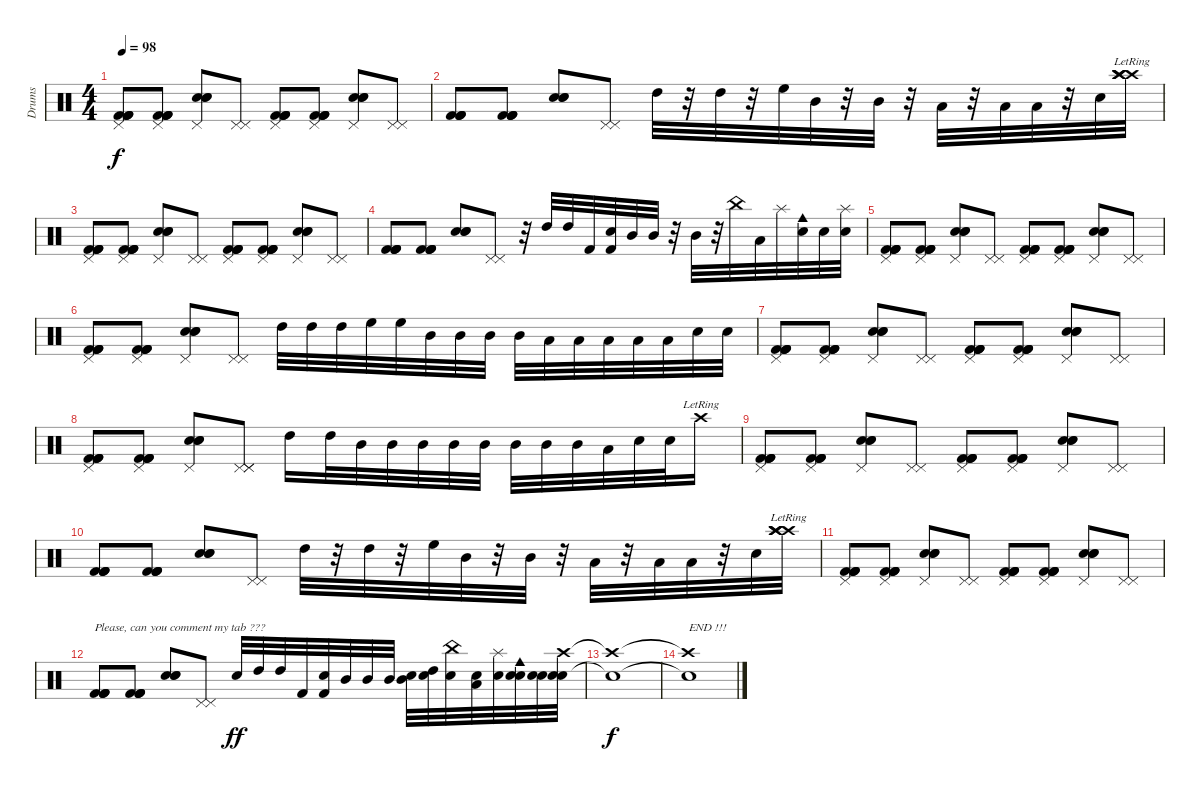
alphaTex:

\track ("Drums" "Drums") {instrument percussion}
\staff {score}
\articulation defaults
\ts (4 4)
\tempo 98
\clef neutral
\ks c
("Pedal Hi-Hat (hit)" "Kick (hit) 2" "Kick (hit) 2" "Kick (hit) 2" "Kick (hit) 2").8{dy f} ("Pedal Hi-Hat (hit)" "Kick (hit) 2" "Kick (hit) 2" "Kick (hit) 2" "Kick (hit) 2").8 ("Pedal Hi-Hat (hit)" "Electric Snare (hit)" "Electric Snare (hit)" "Electric Snare (hit)").8 ("Pedal Hi-Hat (hit)" "Pedal Hi-Hat (hit)").8 ("Pedal Hi-Hat (hit)" "Kick (hit) 2" "Kick (hit) 2" "Kick (hit) 2" "Kick (hit) 2").8 ("Pedal Hi-Hat (hit)" "Kick (hit) 2" "Kick (hit) 2" "Kick (hit) 2" "Kick (hit) 2").8 ("Pedal Hi-Hat (hit)" "Electric Snare (hit)" "Electric Snare (hit)" "Electric Snare (hit)").8 ("Pedal Hi-Hat (hit)" "Pedal Hi-Hat (hit)").8 |
("Kick (hit) 2" "Kick (hit) 2" "Kick (hit) 2" "Kick (hit) 2").8 ("Kick (hit) 2" "Kick (hit) 2" "Kick (hit) 2" "Kick (hit) 2").8 ("Electric Snare (hit)" "Electric Snare (hit)" "Electric Snare (hit)").8 ("Pedal Hi-Hat (hit)" "Pedal Hi-Hat (hit)").8 "High Tom (hit)".32 r.32 "High Tom (hit)".32 r.32 "High Floor Tom (hit)".32 "Mid Tom (hit)".32 r.32 "Mid Tom (hit)".32 r.32 "Low Tom (hit)".32 r.32 "Low Tom (hit)".32 "Low Floor Tom (hit)".32 r.32 "Electric Snare (hit)".32 ("Crash high (hit)"{lr} "Crash high (hit)"{lr} "Crash high (hit)"{lr} "Crash high (hit)"{lr}).32 |
("Pedal Hi-Hat (hit)" "Kick (hit) 2" "Kick (hit) 2" "Kick (hit) 2" "Kick (hit) 2").8 ("Pedal Hi-Hat (hit)" "Kick (hit) 2" "Kick (hit) 2" "Kick (hit) 2" "Kick (hit) 2").8 ("Pedal Hi-Hat (hit)" "Electric Snare (hit)" "Electric Snare (hit)" "Electric Snare (hit)").8 ("Pedal Hi-Hat (hit)" "Pedal Hi-Hat (hit)").8 ("Pedal Hi-Hat (hit)" "Kick (hit) 2" "Kick (hit) 2" "Kick (hit) 2" "Kick (hit) 2").8 ("Pedal Hi-Hat (hit)" "Kick (hit) 2" "Kick (hit) 2" "Kick (hit) 2" "Kick (hit) 2").8 ("Pedal Hi-Hat (hit)" "Electric Snare (hit)" "Electric Snare (hit)" "Electric Snare (hit)").8 ("Pedal Hi-Hat (hit)" "Pedal Hi-Hat (hit)").8 |
("Kick (hit) 2" "Kick (hit) 2" "Kick (hit) 2" "Kick (hit) 2").8 ("Kick (hit) 2" "Kick (hit) 2" "Kick (hit) 2" "Kick (hit) 2").8 ("Electric Snare (hit)" "Electric Snare (hit)" "Electric Snare (hit)").8 ("Pedal Hi-Hat (hit)" "Pedal Hi-Hat (hit)").8 r.32 "High Tom (hit)".32 "High Tom (hit)".32 "Kick (hit) 2".32 ("Electric Snare (hit)" "Kick (hit) 2").32 "Mid Tom (hit)".32 "Mid Tom (hit)".32 r.32 "Mid Tom (hit)".32 r.32 "China (hit)".32 "Low Tom (hit)".32 "Splash (hit)".32 ("Electric Snare (hit)" "Cowbell medium (hit)").32 "Electric Snare (hit)".32 ("Splash (hit)" "Electric Snare (hit)").32 |
("Pedal Hi-Hat (hit)" "Kick (hit) 2" "Kick (hit) 2" "Kick (hit) 2" "Kick (hit) 2").8 ("Pedal Hi-Hat (hit)" "Kick (hit) 2" "Kick (hit) 2" "Kick (hit) 2" "Kick (hit) 2").8 ("Pedal Hi-Hat (hit)" "Electric Snare (hit)" "Electric Snare (hit)" "Electric Snare (hit)").8 ("Pedal Hi-Hat (hit)" "Pedal Hi-Hat (hit)").8 ("Pedal Hi-Hat (hit)" "Kick (hit) 2" "Kick (hit) 2" "Kick (hit) 2" "Kick (hit) 2").8 ("Pedal Hi-Hat (hit)" "Kick (hit) 2" "Kick (hit) 2" "Kick (hit) 2" "Kick (hit) 2").8 ("Pedal Hi-Hat (hit)" "Electric Snare (hit)" "Electric Snare (hit)" "Electric Snare (hit)").8 ("Pedal Hi-Hat (hit)" "Pedal Hi-Hat (hit)").8 |
("Pedal Hi-Hat (hit)" "Kick (hit) 2" "Kick (hit) 2" "Kick (hit) 2" "Kick (hit) 2").8 ("Pedal Hi-Hat (hit)" "Kick (hit) 2" "Kick (hit) 2" "Kick (hit) 2" "Kick (hit) 2").8 ("Pedal Hi-Hat (hit)" "Electric Snare (hit)" "Electric Snare (hit)" "Electric Snare (hit)").8 ("Pedal Hi-Hat (hit)" "Pedal Hi-Hat (hit)").8 "High Tom (hit)".32 "High Tom (hit)".32 "High Tom (hit)".32 "High Floor Tom (hit)".32 "High Floor Tom (hit)".32 "Mid Tom (hit)".32 "Mid Tom (hit)".32 "Mid Tom (hit)".32 "Mid Tom (hit)".32 "Low Tom (hit)".32 "Low Tom (hit)".32 "Low Tom (hit)".32 "Low Floor Tom (hit)".32 "Low Floor Tom (hit)".32 "Electric Snare (hit)".32 "Electric Snare (hit)".32 |
("Pedal Hi-Hat (hit)" "Kick (hit) 2" "Kick (hit) 2" "Kick (hit) 2" "Kick (hit) 2").8 ("Pedal Hi-Hat (hit)" "Kick (hit) 2" "Kick (hit) 2" "Kick (hit) 2" "Kick (hit) 2").8 ("Pedal Hi-Hat (hit)" "Electric Snare (hit)" "Electric Snare (hit)" "Electric Snare (hit)").8 ("Pedal Hi-Hat (hit)" "Pedal Hi-Hat (hit)").8 ("Pedal Hi-Hat (hit)" "Kick (hit) 2" "Kick (hit) 2" "Kick (hit) 2" "Kick (hit) 2").8 ("Pedal Hi-Hat (hit)" "Kick (hit) 2" "Kick (hit) 2" "Kick (hit) 2" "Kick (hit) 2").8 ("Pedal Hi-Hat (hit)" "Electric Snare (hit)" "Electric Snare (hit)" "Electric Snare (hit)").8 ("Pedal Hi-Hat (hit)" "Pedal Hi-Hat (hit)").8 |
("Pedal Hi-Hat (hit)" "Kick (hit) 2" "Kick (hit) 2" "Kick (hit) 2" "Kick (hit) 2").8 ("Pedal Hi-Hat (hit)" "Kick (hit) 2" "Kick (hit) 2" "Kick (hit) 2" "Kick (hit) 2").8 ("Pedal Hi-Hat (hit)" "Electric Snare (hit)" "Electric Snare (hit)" "Electric Snare (hit)").8 ("Pedal Hi-Hat (hit)" "Pedal Hi-Hat (hit)" "Pedal Hi-Hat (hit)").8 "High Tom (hit)".16 "High Tom (hit)".32 "Mid Tom (hit)".32 "Mid Tom (hit)".32 "Mid Tom (hit)".32 "Mid Tom (hit)".32 "Mid Tom (hit)".32 "Mid Tom (hit)".32 "Mid Tom (hit)".32 "Mid Tom (hit)".32 "Low Tom (hit)".32 "Snare (hit) 2".32 "Electric Snare (hit)".32 "Crash high (hit)"{lr}.16 |
("Pedal Hi-Hat (hit)" "Kick (hit) 2" "Kick (hit) 2" "Kick (hit) 2" "Kick (hit) 2").8 ("Pedal Hi-Hat (hit)" "Kick (hit) 2" "Kick (hit) 2" "Kick (hit) 2" "Kick (hit) 2").8 ("Pedal Hi-Hat (hit)" "Electric Snare (hit)" "Electric Snare (hit)" "Electric Snare (hit)").8 ("Pedal Hi-Hat (hit)" "Pedal Hi-Hat (hit)").8 ("Pedal Hi-Hat (hit)" "Kick (hit) 2" "Kick (hit) 2" "Kick (hit) 2" "Kick (hit) 2").8 ("Pedal Hi-Hat (hit)" "Kick (hit) 2" "Kick (hit) 2" "Kick (hit) 2" "Kick (hit) 2").8 ("Pedal Hi-Hat (hit)" "Electric Snare (hit)" "Electric Snare (hit)" "Electric Snare (hit)").8 ("Pedal Hi-Hat (hit)" "Pedal Hi-Hat (hit)").8 |
("Kick (hit) 2" "Kick (hit) 2" "Kick (hit) 2" "Kick (hit) 2").8 ("Kick (hit) 2" "Kick (hit) 2" "Kick (hit) 2" "Kick (hit) 2").8 ("Electric Snare (hit)" "Electric Snare (hit)" "Electric Snare (hit)").8 ("Pedal Hi-Hat (hit)" "Pedal Hi-Hat (hit)").8 "High Tom (hit)".32 r.32 "High Tom (hit)".32 r.32 "High Floor Tom (hit)".32 "Mid Tom (hit)".32 r.32 "Mid Tom (hit)".32 r.32 "Low Tom (hit)".32 r.32 "Low Tom (hit)".32 "Low Floor Tom (hit)".32 r.32 "Electric Snare (hit)".32 ("Crash high (hit)"{lr} "Crash high (hit)"{lr} "Crash high (hit)"{lr} "Crash high (hit)"{lr}).32 |
("Pedal Hi-Hat (hit)" "Kick (hit) 2" "Kick (hit) 2" "Kick (hit) 2" "Kick (hit) 2").8 ("Pedal Hi-Hat (hit)" "Kick (hit) 2" "Kick (hit) 2" "Kick (hit) 2" "Kick (hit) 2").8 ("Pedal Hi-Hat (hit)" "Electric Snare (hit)" "Electric Snare (hit)" "Electric Snare (hit)").8 ("Pedal Hi-Hat (hit)" "Pedal Hi-Hat (hit)").8 ("Pedal Hi-Hat (hit)" "Kick (hit) 2" "Kick (hit) 2" "Kick (hit) 2" "Kick (hit) 2").8 ("Pedal Hi-Hat (hit)" "Kick (hit) 2" "Kick (hit) 2" "Kick (hit) 2" "Kick (hit) 2").8 ("Pedal Hi-Hat (hit)" "Electric Snare (hit)" "Electric Snare (hit)" "Electric Snare (hit)").8 ("Pedal Hi-Hat (hit)" "Pedal Hi-Hat (hit)").8 |
("Kick (hit) 2" "Kick (hit) 2" "Kick (hit) 2" "Kick (hit) 2").8{txt "Please, can you comment my tab ???"} ("Kick (hit) 2" "Kick (hit) 2" "Kick (hit) 2" "Kick (hit) 2").8 ("Electric Snare (hit)" "Electric Snare (hit)" "Electric Snare (hit)").8 ("Pedal Hi-Hat (hit)" "Pedal Hi-Hat (hit)").8 "Snare (hit) 2".32{dy ff} "High Tom (hit)".32 "High Tom (hit)".32 "Kick (hit) 2".32 ("Electric Snare (hit)" "Kick (hit) 2").32 "Mid Tom (hit)".32 "Mid Tom (hit)".32 "Mid Tom (hit)".32 ("Mid Tom (hit)" "Snare (hit) 2").32 ("High Tom (hit)" "Snare (hit) 2").32 ("China (hit)" "Snare (hit) 2").32 ("Low Tom (hit)" "Snare (hit) 2").32 ("Splash (hit)" "Snare (hit) 2").32 ("Electric Snare (hit)" "Cowbell medium (hit)" "Snare (hit) 2").32 ("Electric Snare (hit)" "Snare (hit) 2").32 ("Crash high (hit)" "Electric Snare (hit)" "Snare (hit) 2").32 |
("Crash high (hit)"{t} "Electric Snare (hit)"{t}).1{dy f} |
("Crash high (hit)"{t} "Electric Snare (hit)"{t}).1{txt "END !!!"}
